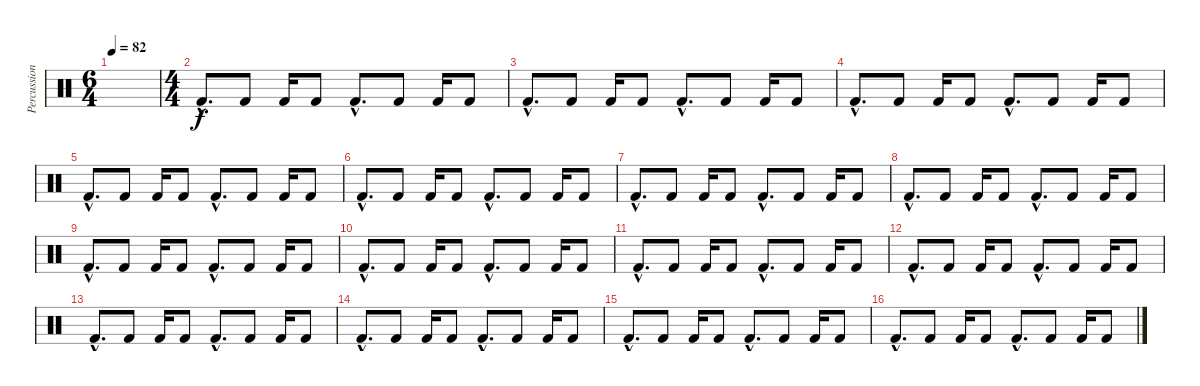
\track ("Percussion" "Percussion") {instrument percussion}
\staff {score}
\articulation defaults
\ts (6 4)
\tempo 82
\clef neutral
\ks c
|
\ts (4 4)
"Kick (hit) 2"{hac}.8{d} "Kick (hit) 2".8 "Kick (hit) 2".16 "Kick (hit) 2".8 "Kick (hit) 2"{hac}.8{d} "Kick (hit) 2".8 "Kick (hit) 2".16 "Kick (hit) 2".8 |
"Kick (hit) 2"{hac}.8{d} "Kick (hit) 2".8 "Kick (hit) 2".16 "Kick (hit) 2".8 "Kick (hit) 2"{hac}.8{d} "Kick (hit) 2".8 "Kick (hit) 2".16 "Kick (hit) 2".8 |
"Kick (hit) 2"{hac}.8{d} "Kick (hit) 2".8 "Kick (hit) 2".16 "Kick (hit) 2".8 "Kick (hit) 2"{hac}.8{d} "Kick (hit) 2".8 "Kick (hit) 2".16 "Kick (hit) 2".8 |
"Kick (hit) 2"{hac}.8{d} "Kick (hit) 2".8 "Kick (hit) 2".16 "Kick (hit) 2".8 "Kick (hit) 2"{hac}.8{d} "Kick (hit) 2".8 "Kick (hit) 2".16 "Kick (hit) 2".8 |
"Kick (hit) 2"{hac}.8{d} "Kick (hit) 2".8 "Kick (hit) 2".16 "Kick (hit) 2".8 "Kick (hit) 2"{hac}.8{d} "Kick (hit) 2".8 "Kick (hit) 2".16 "Kick (hit) 2".8 |
"Kick (hit) 2"{hac}.8{d} "Kick (hit) 2".8 "Kick (hit) 2".16 "Kick (hit) 2".8 "Kick (hit) 2"{hac}.8{d} "Kick (hit) 2".8 "Kick (hit) 2".16 "Kick (hit) 2".8 |
"Kick (hit) 2"{hac}.8{d} "Kick (hit) 2".8 "Kick (hit) 2".16 "Kick (hit) 2".8 "Kick (hit) 2"{hac}.8{d} "Kick (hit) 2".8 "Kick (hit) 2".16 "Kick (hit) 2".8 |
"Kick (hit) 2"{hac}.8{d} "Kick (hit) 2".8 "Kick (hit) 2".16 "Kick (hit) 2".8 "Kick (hit) 2"{hac}.8{d} "Kick (hit) 2".8 "Kick (hit) 2".16 "Kick (hit) 2".8 |
"Kick (hit) 2"{hac}.8{d} "Kick (hit) 2".8 "Kick (hit) 2".16 "Kick (hit) 2".8 "Kick (hit) 2"{hac}.8{d} "Kick (hit) 2".8 "Kick (hit) 2".16 "Kick (hit) 2".8 |
"Kick (hit) 2"{hac}.8{d} "Kick (hit) 2".8 "Kick (hit) 2".16 "Kick (hit) 2".8 "Kick (hit) 2"{hac}.8{d} "Kick (hit) 2".8 "Kick (hit) 2".16 "Kick (hit) 2".8 |
"Kick (hit) 2"{hac}.8{d} "Kick (hit) 2".8 "Kick (hit) 2".16 "Kick (hit) 2".8 "Kick (hit) 2"{hac}.8{d} "Kick (hit) 2".8 "Kick (hit) 2".16 "Kick (hit) 2".8 |
"Kick (hit) 2"{hac}.8{d} "Kick (hit) 2".8 "Kick (hit) 2".16 "Kick (hit) 2".8 "Kick (hit) 2"{hac}.8{d} "Kick (hit) 2".8 "Kick (hit) 2".16 "Kick (hit) 2".8 |
"Kick (hit) 2"{hac}.8{d} "Kick (hit) 2".8 "Kick (hit) 2".16 "Kick (hit) 2".8 "Kick (hit) 2"{hac}.8{d} "Kick (hit) 2".8 "Kick (hit) 2".16 "Kick (hit) 2".8 |
"Kick (hit) 2"{hac}.8{d} "Kick (hit) 2".8 "Kick (hit) 2".16 "Kick (hit) 2".8 "Kick (hit) 2"{hac}.8{d} "Kick (hit) 2".8 "Kick (hit) 2".16 "Kick (hit) 2".8 |
"Kick (hit) 2"{hac}.8{d} "Kick (hit) 2".8 "Kick (hit) 2".16 "Kick (hit) 2".8 "Kick (hit) 2"{hac}.8{d} "Kick (hit) 2".8 "Kick (hit) 2".16 "Kick (hit) 2".8
